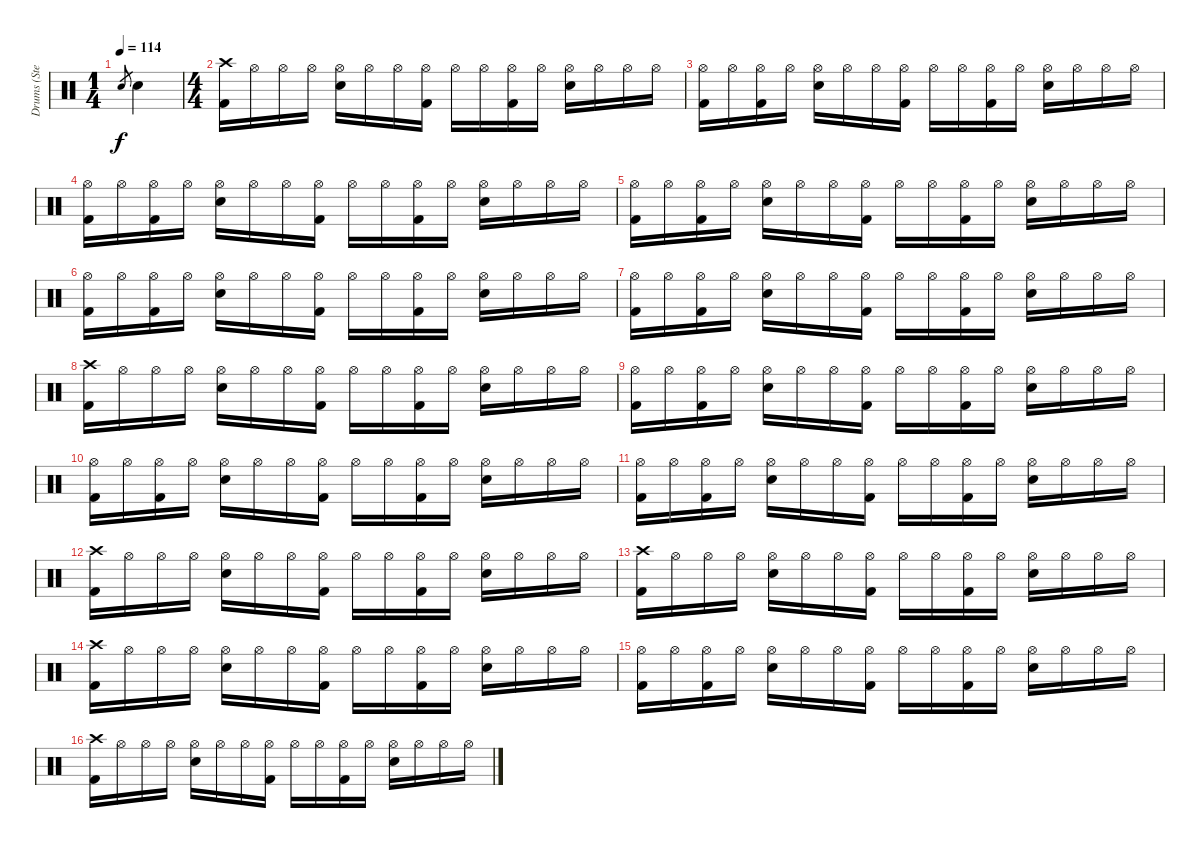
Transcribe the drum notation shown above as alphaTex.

\track ("Drums (Steven)" "Drums (Ste") {instrument percussion}
\staff {score}
\articulation defaults
\ts (1 4)
\tempo 114
\clef neutral
\ks c "Snare (hit) 2".8{gr dy f} "Snare (hit) 2".4
|
\ts (4 4)
("Crash high (hit)" "Kick (hit) 2").16 "Hi-Hat (open)".16 "Hi-Hat (open)".16 "Hi-Hat (open)".16 ("Hi-Hat (open)" "Snare (hit) 2").16 "Hi-Hat (open)".16 "Hi-Hat (open)".16 ("Hi-Hat (open)" "Kick (hit) 2").16 "Hi-Hat (open)".16 "Hi-Hat (open)".16 ("Hi-Hat (open)" "Kick (hit) 2").16 "Hi-Hat (open)".16 ("Hi-Hat (open)" "Snare (hit) 2").16 "Hi-Hat (open)".16 "Hi-Hat (open)".16 "Hi-Hat (open)".16 |
("Hi-Hat (open)" "Kick (hit) 2").16 "Hi-Hat (open)".16 ("Hi-Hat (open)" "Kick (hit) 2").16 "Hi-Hat (open)".16 ("Hi-Hat (open)" "Snare (hit) 2").16 "Hi-Hat (open)".16 "Hi-Hat (open)".16 ("Hi-Hat (open)" "Kick (hit) 2").16 "Hi-Hat (open)".16 "Hi-Hat (open)".16 ("Hi-Hat (open)" "Kick (hit) 2").16 "Hi-Hat (open)".16 ("Hi-Hat (open)" "Snare (hit) 2").16 "Hi-Hat (open)".16 "Hi-Hat (open)".16 "Hi-Hat (open)".16 |
("Hi-Hat (open)" "Kick (hit) 2").16 "Hi-Hat (open)".16 ("Hi-Hat (open)" "Kick (hit) 2").16 "Hi-Hat (open)".16 ("Hi-Hat (open)" "Snare (hit) 2").16 "Hi-Hat (open)".16 "Hi-Hat (open)".16 ("Hi-Hat (open)" "Kick (hit) 2").16 "Hi-Hat (open)".16 "Hi-Hat (open)".16 ("Hi-Hat (open)" "Kick (hit) 2").16 "Hi-Hat (open)".16 ("Hi-Hat (open)" "Snare (hit) 2").16 "Hi-Hat (open)".16 "Hi-Hat (open)".16 "Hi-Hat (open)".16 |
("Hi-Hat (open)" "Kick (hit) 2").16 "Hi-Hat (open)".16 ("Hi-Hat (open)" "Kick (hit) 2").16 "Hi-Hat (open)".16 ("Hi-Hat (open)" "Snare (hit) 2").16 "Hi-Hat (open)".16 "Hi-Hat (open)".16 ("Hi-Hat (open)" "Kick (hit) 2").16 "Hi-Hat (open)".16 "Hi-Hat (open)".16 ("Hi-Hat (open)" "Kick (hit) 2").16 "Hi-Hat (open)".16 ("Hi-Hat (open)" "Snare (hit) 2").16 "Hi-Hat (open)".16 "Hi-Hat (open)".16 "Hi-Hat (open)".16 |
("Hi-Hat (open)" "Kick (hit) 2").16 "Hi-Hat (open)".16 ("Hi-Hat (open)" "Kick (hit) 2").16 "Hi-Hat (open)".16 ("Hi-Hat (open)" "Snare (hit) 2").16 "Hi-Hat (open)".16 "Hi-Hat (open)".16 ("Hi-Hat (open)" "Kick (hit) 2").16 "Hi-Hat (open)".16 "Hi-Hat (open)".16 ("Hi-Hat (open)" "Kick (hit) 2").16 "Hi-Hat (open)".16 ("Hi-Hat (open)" "Snare (hit) 2").16 "Hi-Hat (open)".16 "Hi-Hat (open)".16 "Hi-Hat (open)".16 |
("Hi-Hat (open)" "Kick (hit) 2").16 "Hi-Hat (open)".16 ("Hi-Hat (open)" "Kick (hit) 2").16 "Hi-Hat (open)".16 ("Hi-Hat (open)" "Snare (hit) 2").16 "Hi-Hat (open)".16 "Hi-Hat (open)".16 ("Hi-Hat (open)" "Kick (hit) 2").16 "Hi-Hat (open)".16 "Hi-Hat (open)".16 ("Hi-Hat (open)" "Kick (hit) 2").16 "Hi-Hat (open)".16 ("Hi-Hat (open)" "Snare (hit) 2").16 "Hi-Hat (open)".16 "Hi-Hat (open)".16 "Hi-Hat (open)".16 |
("Crash high (hit)" "Kick (hit) 2").16 "Hi-Hat (open)".16 "Hi-Hat (open)".16 "Hi-Hat (open)".16 ("Hi-Hat (open)" "Snare (hit) 2").16 "Hi-Hat (open)".16 "Hi-Hat (open)".16 ("Hi-Hat (open)" "Kick (hit) 2").16 "Hi-Hat (open)".16 "Hi-Hat (open)".16 ("Hi-Hat (open)" "Kick (hit) 2").16 "Hi-Hat (open)".16 ("Hi-Hat (open)" "Snare (hit) 2").16 "Hi-Hat (open)".16 "Hi-Hat (open)".16 "Hi-Hat (open)".16 |
("Hi-Hat (open)" "Kick (hit) 2").16 "Hi-Hat (open)".16 ("Hi-Hat (open)" "Kick (hit) 2").16 "Hi-Hat (open)".16 ("Hi-Hat (open)" "Snare (hit) 2").16 "Hi-Hat (open)".16 "Hi-Hat (open)".16 ("Hi-Hat (open)" "Kick (hit) 2").16 "Hi-Hat (open)".16 "Hi-Hat (open)".16 ("Hi-Hat (open)" "Kick (hit) 2").16 "Hi-Hat (open)".16 ("Hi-Hat (open)" "Snare (hit) 2").16 "Hi-Hat (open)".16 "Hi-Hat (open)".16 "Hi-Hat (open)".16 |
("Hi-Hat (open)" "Kick (hit) 2").16 "Hi-Hat (open)".16 ("Hi-Hat (open)" "Kick (hit) 2").16 "Hi-Hat (open)".16 ("Hi-Hat (open)" "Snare (hit) 2").16 "Hi-Hat (open)".16 "Hi-Hat (open)".16 ("Hi-Hat (open)" "Kick (hit) 2").16 "Hi-Hat (open)".16 "Hi-Hat (open)".16 ("Hi-Hat (open)" "Kick (hit) 2").16 "Hi-Hat (open)".16 ("Hi-Hat (open)" "Snare (hit) 2").16 "Hi-Hat (open)".16 "Hi-Hat (open)".16 "Hi-Hat (open)".16 |
("Hi-Hat (open)" "Kick (hit) 2").16 "Hi-Hat (open)".16 ("Hi-Hat (open)" "Kick (hit) 2").16 "Hi-Hat (open)".16 ("Hi-Hat (open)" "Snare (hit) 2").16 "Hi-Hat (open)".16 "Hi-Hat (open)".16 ("Hi-Hat (open)" "Kick (hit) 2").16 "Hi-Hat (open)".16 "Hi-Hat (open)".16 ("Hi-Hat (open)" "Kick (hit) 2").16 "Hi-Hat (open)".16 ("Hi-Hat (open)" "Snare (hit) 2").16 "Hi-Hat (open)".16 "Hi-Hat (open)".16 "Hi-Hat (open)".16 |
("Crash high (hit)" "Kick (hit) 2").16 "Hi-Hat (open)".16 "Hi-Hat (open)".16 "Hi-Hat (open)".16 ("Hi-Hat (open)" "Snare (hit) 2").16 "Hi-Hat (open)".16 "Hi-Hat (open)".16 ("Hi-Hat (open)" "Kick (hit) 2").16 "Hi-Hat (open)".16 "Hi-Hat (open)".16 ("Hi-Hat (open)" "Kick (hit) 2").16 "Hi-Hat (open)".16 ("Hi-Hat (open)" "Snare (hit) 2").16 "Hi-Hat (open)".16 "Hi-Hat (open)".16 "Hi-Hat (open)".16 |
("Crash high (hit)" "Kick (hit) 2").16 "Hi-Hat (open)".16 "Hi-Hat (open)".16 "Hi-Hat (open)".16 ("Hi-Hat (open)" "Snare (hit) 2").16 "Hi-Hat (open)".16 "Hi-Hat (open)".16 ("Hi-Hat (open)" "Kick (hit) 2").16 "Hi-Hat (open)".16 "Hi-Hat (open)".16 ("Hi-Hat (open)" "Kick (hit) 2").16 "Hi-Hat (open)".16 ("Hi-Hat (open)" "Snare (hit) 2").16 "Hi-Hat (open)".16 "Hi-Hat (open)".16 "Hi-Hat (open)".16 |
("Crash high (hit)" "Kick (hit) 2").16 "Hi-Hat (open)".16 "Hi-Hat (open)".16 "Hi-Hat (open)".16 ("Hi-Hat (open)" "Snare (hit) 2").16 "Hi-Hat (open)".16 "Hi-Hat (open)".16 ("Hi-Hat (open)" "Kick (hit) 2").16 "Hi-Hat (open)".16 "Hi-Hat (open)".16 ("Hi-Hat (open)" "Kick (hit) 2").16 "Hi-Hat (open)".16 ("Hi-Hat (open)" "Snare (hit) 2").16 "Hi-Hat (open)".16 "Hi-Hat (open)".16 "Hi-Hat (open)".16 |
("Hi-Hat (open)" "Kick (hit) 2").16 "Hi-Hat (open)".16 ("Hi-Hat (open)" "Kick (hit) 2").16 "Hi-Hat (open)".16 ("Hi-Hat (open)" "Snare (hit) 2").16 "Hi-Hat (open)".16 "Hi-Hat (open)".16 ("Hi-Hat (open)" "Kick (hit) 2").16 "Hi-Hat (open)".16 "Hi-Hat (open)".16 ("Hi-Hat (open)" "Kick (hit) 2").16 "Hi-Hat (open)".16 ("Hi-Hat (open)" "Snare (hit) 2").16 "Hi-Hat (open)".16 "Hi-Hat (open)".16 "Hi-Hat (open)".16 |
("Crash high (hit)" "Kick (hit) 2").16 "Hi-Hat (open)".16 "Hi-Hat (open)".16 "Hi-Hat (open)".16 ("Hi-Hat (open)" "Snare (hit) 2").16 "Hi-Hat (open)".16 "Hi-Hat (open)".16 ("Hi-Hat (open)" "Kick (hit) 2").16 "Hi-Hat (open)".16 "Hi-Hat (open)".16 ("Hi-Hat (open)" "Kick (hit) 2").16 "Hi-Hat (open)".16 ("Hi-Hat (open)" "Snare (hit) 2").16 "Hi-Hat (open)".16 "Hi-Hat (open)".16 "Hi-Hat (open)".16
